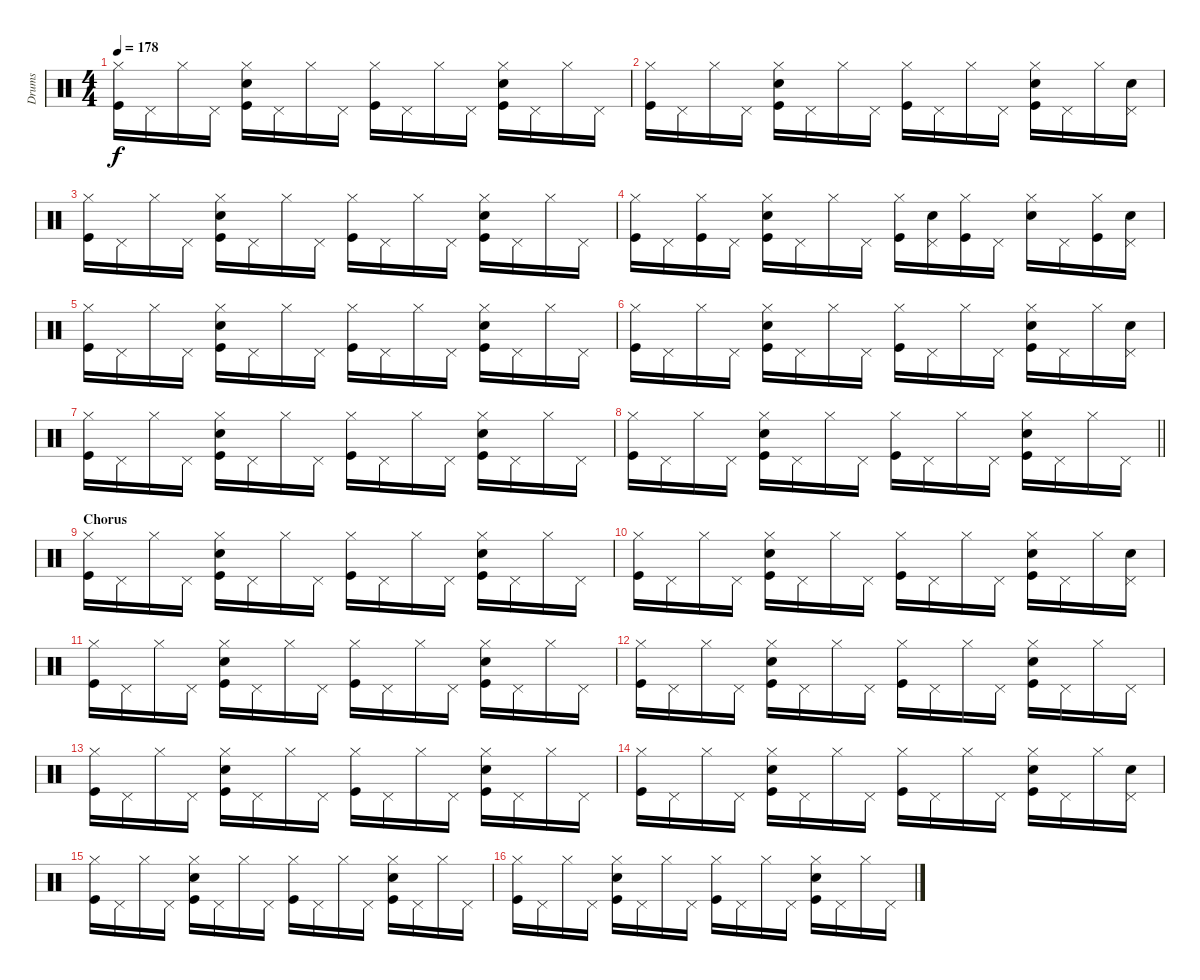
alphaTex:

\track ("Drums" "Drums") {instrument percussion}
\staff {score}
\articulation defaults
\ts (4 4)
\tempo 178
\clef neutral
\ks c
("Kick (hit)" "Hi-Hat (closed)").16{dy f} "Pedal Hi-Hat (hit)".16 "Hi-Hat (closed)".16 "Pedal Hi-Hat (hit)".16 ("Kick (hit)" "Electric Snare (hit)" "Hi-Hat (closed)").16 "Pedal Hi-Hat (hit)".16 "Hi-Hat (closed)".16 "Pedal Hi-Hat (hit)".16 ("Kick (hit)" "Hi-Hat (closed)").16 "Pedal Hi-Hat (hit)".16 "Hi-Hat (closed)".16 "Pedal Hi-Hat (hit)".16 ("Kick (hit)" "Electric Snare (hit)" "Hi-Hat (closed)").16 "Pedal Hi-Hat (hit)".16 "Hi-Hat (closed)".16 "Pedal Hi-Hat (hit)".16 |
("Kick (hit)" "Hi-Hat (closed)").16 "Pedal Hi-Hat (hit)".16 "Hi-Hat (closed)".16 "Pedal Hi-Hat (hit)".16 ("Kick (hit)" "Electric Snare (hit)" "Hi-Hat (closed)").16 "Pedal Hi-Hat (hit)".16 "Hi-Hat (closed)".16 "Pedal Hi-Hat (hit)".16 ("Kick (hit)" "Hi-Hat (closed)").16 "Pedal Hi-Hat (hit)".16 "Hi-Hat (closed)".16 "Pedal Hi-Hat (hit)".16 ("Kick (hit)" "Electric Snare (hit)" "Hi-Hat (closed)").16 "Pedal Hi-Hat (hit)".16 "Hi-Hat (closed)".16 ("Electric Snare (hit)" "Pedal Hi-Hat (hit)").16 |
("Kick (hit)" "Hi-Hat (closed)").16 "Pedal Hi-Hat (hit)".16 "Hi-Hat (closed)".16 "Pedal Hi-Hat (hit)".16 ("Kick (hit)" "Electric Snare (hit)" "Hi-Hat (closed)").16 "Pedal Hi-Hat (hit)".16 "Hi-Hat (closed)".16 "Pedal Hi-Hat (hit)".16 ("Kick (hit)" "Hi-Hat (closed)").16 "Pedal Hi-Hat (hit)".16 "Hi-Hat (closed)".16 "Pedal Hi-Hat (hit)".16 ("Kick (hit)" "Electric Snare (hit)" "Hi-Hat (closed)").16 "Pedal Hi-Hat (hit)".16 "Hi-Hat (closed)".16 "Pedal Hi-Hat (hit)".16 |
("Kick (hit)" "Hi-Hat (closed)").16 "Pedal Hi-Hat (hit)".16 ("Kick (hit)" "Hi-Hat (closed)").16 "Pedal Hi-Hat (hit)".16 ("Kick (hit)" "Electric Snare (hit)" "Hi-Hat (closed)").16 "Pedal Hi-Hat (hit)".16 "Hi-Hat (closed)".16 "Pedal Hi-Hat (hit)".16 ("Kick (hit)" "Hi-Hat (closed)").16 ("Electric Snare (hit)" "Pedal Hi-Hat (hit)").16 ("Kick (hit)" "Hi-Hat (closed)").16 "Pedal Hi-Hat (hit)".16 ("Electric Snare (hit)" "Hi-Hat (closed)").16 "Pedal Hi-Hat (hit)".16 ("Kick (hit)" "Hi-Hat (closed)").16 ("Electric Snare (hit)" "Pedal Hi-Hat (hit)").16 |
("Kick (hit)" "Hi-Hat (closed)").16 "Pedal Hi-Hat (hit)".16 "Hi-Hat (closed)".16 "Pedal Hi-Hat (hit)".16 ("Kick (hit)" "Electric Snare (hit)" "Hi-Hat (closed)").16 "Pedal Hi-Hat (hit)".16 "Hi-Hat (closed)".16 "Pedal Hi-Hat (hit)".16 ("Kick (hit)" "Hi-Hat (closed)").16 "Pedal Hi-Hat (hit)".16 "Hi-Hat (closed)".16 "Pedal Hi-Hat (hit)".16 ("Kick (hit)" "Electric Snare (hit)" "Hi-Hat (closed)").16 "Pedal Hi-Hat (hit)".16 "Hi-Hat (closed)".16 "Pedal Hi-Hat (hit)".16 |
("Kick (hit)" "Hi-Hat (closed)").16 "Pedal Hi-Hat (hit)".16 "Hi-Hat (closed)".16 "Pedal Hi-Hat (hit)".16 ("Kick (hit)" "Electric Snare (hit)" "Hi-Hat (closed)").16 "Pedal Hi-Hat (hit)".16 "Hi-Hat (closed)".16 "Pedal Hi-Hat (hit)".16 ("Kick (hit)" "Hi-Hat (closed)").16 "Pedal Hi-Hat (hit)".16 "Hi-Hat (closed)".16 "Pedal Hi-Hat (hit)".16 ("Kick (hit)" "Electric Snare (hit)" "Hi-Hat (closed)").16 "Pedal Hi-Hat (hit)".16 "Hi-Hat (closed)".16 ("Electric Snare (hit)" "Pedal Hi-Hat (hit)").16 |
("Kick (hit)" "Hi-Hat (closed)").16 "Pedal Hi-Hat (hit)".16 "Hi-Hat (closed)".16 "Pedal Hi-Hat (hit)".16 ("Kick (hit)" "Electric Snare (hit)" "Hi-Hat (closed)").16 "Pedal Hi-Hat (hit)".16 "Hi-Hat (closed)".16 "Pedal Hi-Hat (hit)".16 ("Kick (hit)" "Hi-Hat (closed)").16 "Pedal Hi-Hat (hit)".16 "Hi-Hat (closed)".16 "Pedal Hi-Hat (hit)".16 ("Kick (hit)" "Electric Snare (hit)" "Hi-Hat (closed)").16 "Pedal Hi-Hat (hit)".16 "Hi-Hat (closed)".16 "Pedal Hi-Hat (hit)".16 |
\barLineRight lightlight
("Kick (hit)" "Hi-Hat (closed)").16 "Pedal Hi-Hat (hit)".16 "Hi-Hat (closed)".16 "Pedal Hi-Hat (hit)".16 ("Kick (hit)" "Electric Snare (hit)" "Hi-Hat (closed)").16 "Pedal Hi-Hat (hit)".16 "Hi-Hat (closed)".16 "Pedal Hi-Hat (hit)".16 ("Kick (hit)" "Hi-Hat (closed)").16 "Pedal Hi-Hat (hit)".16 "Hi-Hat (closed)".16 "Pedal Hi-Hat (hit)".16 ("Kick (hit)" "Electric Snare (hit)" "Hi-Hat (closed)").16 "Pedal Hi-Hat (hit)".16 "Hi-Hat (closed)".16 "Pedal Hi-Hat (hit)".16 |
\section ("" "Chorus")
("Kick (hit)" "Hi-Hat (closed)").16 "Pedal Hi-Hat (hit)".16 "Hi-Hat (closed)".16 "Pedal Hi-Hat (hit)".16 ("Kick (hit)" "Electric Snare (hit)" "Hi-Hat (closed)").16 "Pedal Hi-Hat (hit)".16 "Hi-Hat (closed)".16 "Pedal Hi-Hat (hit)".16 ("Kick (hit)" "Hi-Hat (closed)").16 "Pedal Hi-Hat (hit)".16 "Hi-Hat (closed)".16 "Pedal Hi-Hat (hit)".16 ("Kick (hit)" "Electric Snare (hit)" "Hi-Hat (closed)").16 "Pedal Hi-Hat (hit)".16 "Hi-Hat (closed)".16 "Pedal Hi-Hat (hit)".16 |
("Kick (hit)" "Hi-Hat (closed)").16 "Pedal Hi-Hat (hit)".16 "Hi-Hat (closed)".16 "Pedal Hi-Hat (hit)".16 ("Kick (hit)" "Electric Snare (hit)" "Hi-Hat (closed)").16 "Pedal Hi-Hat (hit)".16 "Hi-Hat (closed)".16 "Pedal Hi-Hat (hit)".16 ("Kick (hit)" "Hi-Hat (closed)").16 "Pedal Hi-Hat (hit)".16 "Hi-Hat (closed)".16 "Pedal Hi-Hat (hit)".16 ("Kick (hit)" "Electric Snare (hit)" "Hi-Hat (closed)").16 "Pedal Hi-Hat (hit)".16 "Hi-Hat (closed)".16 ("Electric Snare (hit)" "Pedal Hi-Hat (hit)").16 |
("Kick (hit)" "Hi-Hat (closed)").16 "Pedal Hi-Hat (hit)".16 "Hi-Hat (closed)".16 "Pedal Hi-Hat (hit)".16 ("Kick (hit)" "Electric Snare (hit)" "Hi-Hat (closed)").16 "Pedal Hi-Hat (hit)".16 "Hi-Hat (closed)".16 "Pedal Hi-Hat (hit)".16 ("Kick (hit)" "Hi-Hat (closed)").16 "Pedal Hi-Hat (hit)".16 "Hi-Hat (closed)".16 "Pedal Hi-Hat (hit)".16 ("Kick (hit)" "Electric Snare (hit)" "Hi-Hat (closed)").16 "Pedal Hi-Hat (hit)".16 "Hi-Hat (closed)".16 "Pedal Hi-Hat (hit)".16 |
("Kick (hit)" "Hi-Hat (closed)").16 "Pedal Hi-Hat (hit)".16 "Hi-Hat (closed)".16 "Pedal Hi-Hat (hit)".16 ("Kick (hit)" "Electric Snare (hit)" "Hi-Hat (closed)").16 "Pedal Hi-Hat (hit)".16 "Hi-Hat (closed)".16 "Pedal Hi-Hat (hit)".16 ("Kick (hit)" "Hi-Hat (closed)").16 "Pedal Hi-Hat (hit)".16 "Hi-Hat (closed)".16 "Pedal Hi-Hat (hit)".16 ("Kick (hit)" "Electric Snare (hit)" "Hi-Hat (closed)").16 "Pedal Hi-Hat (hit)".16 "Hi-Hat (closed)".16 "Pedal Hi-Hat (hit)".16 |
("Kick (hit)" "Hi-Hat (closed)").16 "Pedal Hi-Hat (hit)".16 "Hi-Hat (closed)".16 "Pedal Hi-Hat (hit)".16 ("Kick (hit)" "Electric Snare (hit)" "Hi-Hat (closed)").16 "Pedal Hi-Hat (hit)".16 "Hi-Hat (closed)".16 "Pedal Hi-Hat (hit)".16 ("Kick (hit)" "Hi-Hat (closed)").16 "Pedal Hi-Hat (hit)".16 "Hi-Hat (closed)".16 "Pedal Hi-Hat (hit)".16 ("Kick (hit)" "Electric Snare (hit)" "Hi-Hat (closed)").16 "Pedal Hi-Hat (hit)".16 "Hi-Hat (closed)".16 "Pedal Hi-Hat (hit)".16 |
("Kick (hit)" "Hi-Hat (closed)").16 "Pedal Hi-Hat (hit)".16 "Hi-Hat (closed)".16 "Pedal Hi-Hat (hit)".16 ("Kick (hit)" "Electric Snare (hit)" "Hi-Hat (closed)").16 "Pedal Hi-Hat (hit)".16 "Hi-Hat (closed)".16 "Pedal Hi-Hat (hit)".16 ("Kick (hit)" "Hi-Hat (closed)").16 "Pedal Hi-Hat (hit)".16 "Hi-Hat (closed)".16 "Pedal Hi-Hat (hit)".16 ("Kick (hit)" "Electric Snare (hit)" "Hi-Hat (closed)").16 "Pedal Hi-Hat (hit)".16 "Hi-Hat (closed)".16 ("Electric Snare (hit)" "Pedal Hi-Hat (hit)").16 |
("Kick (hit)" "Hi-Hat (closed)").16 "Pedal Hi-Hat (hit)".16 "Hi-Hat (closed)".16 "Pedal Hi-Hat (hit)".16 ("Kick (hit)" "Electric Snare (hit)" "Hi-Hat (closed)").16 "Pedal Hi-Hat (hit)".16 "Hi-Hat (closed)".16 "Pedal Hi-Hat (hit)".16 ("Kick (hit)" "Hi-Hat (closed)").16 "Pedal Hi-Hat (hit)".16 "Hi-Hat (closed)".16 "Pedal Hi-Hat (hit)".16 ("Kick (hit)" "Electric Snare (hit)" "Hi-Hat (closed)").16 "Pedal Hi-Hat (hit)".16 "Hi-Hat (closed)".16 "Pedal Hi-Hat (hit)".16 |
("Kick (hit)" "Hi-Hat (closed)").16 "Pedal Hi-Hat (hit)".16 "Hi-Hat (closed)".16 "Pedal Hi-Hat (hit)".16 ("Kick (hit)" "Electric Snare (hit)" "Hi-Hat (closed)").16 "Pedal Hi-Hat (hit)".16 "Hi-Hat (closed)".16 "Pedal Hi-Hat (hit)".16 ("Kick (hit)" "Hi-Hat (closed)").16 "Pedal Hi-Hat (hit)".16 "Hi-Hat (closed)".16 "Pedal Hi-Hat (hit)".16 ("Kick (hit)" "Electric Snare (hit)" "Hi-Hat (closed)").16 "Pedal Hi-Hat (hit)".16 "Hi-Hat (closed)".16 "Pedal Hi-Hat (hit)".16
